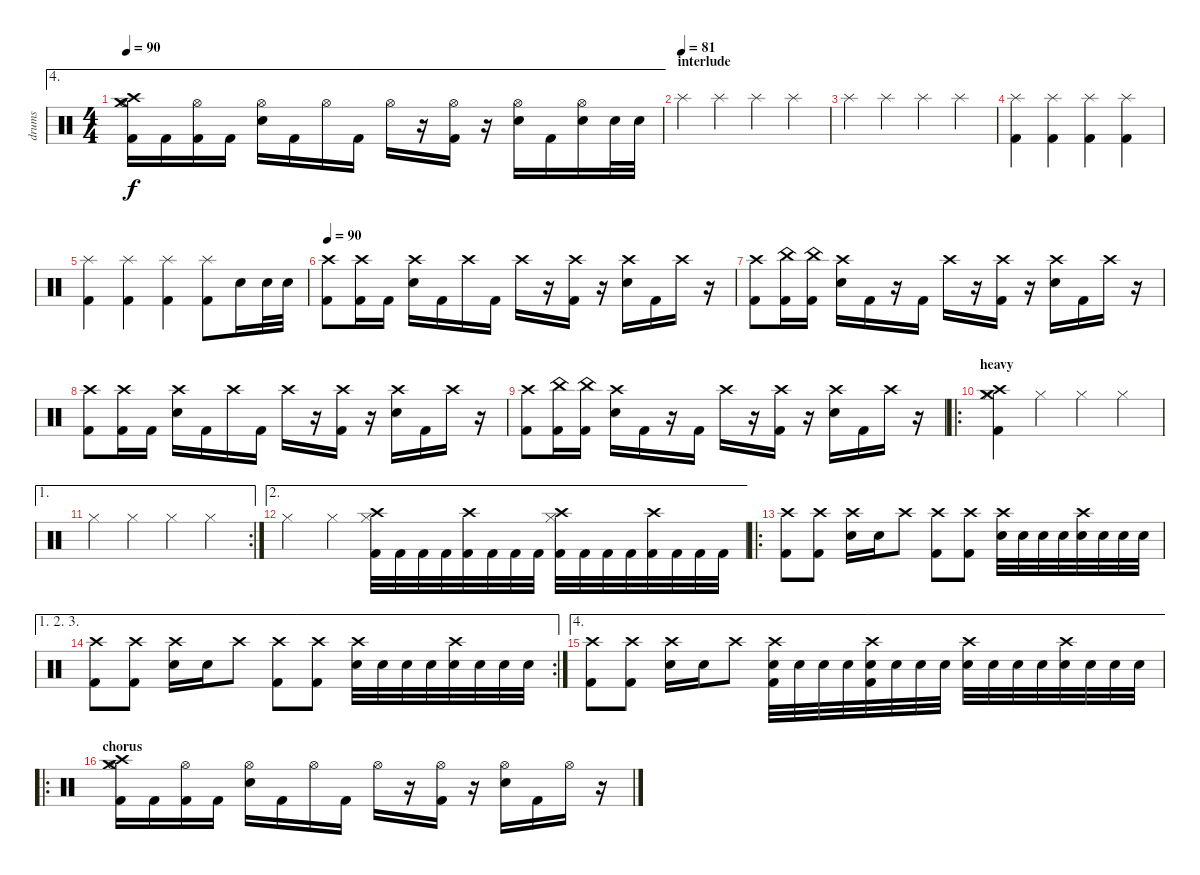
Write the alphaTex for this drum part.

\track ("drums" "drums") {instrument percussion}
\staff {score}
\articulation defaults
\ae 4
\ts (4 4)
\tempo 90
\clef neutral
\ks c
("Crash high (hit)" "Crash medium (hit)" "Hi-Hat (open)" "Kick (hit) 2").16{dy f} "Kick (hit) 2".16 ("Hi-Hat (open)" "Kick (hit) 2").16 "Kick (hit) 2".16 ("Hi-Hat (open)" "Electric Snare (hit)").16 "Kick (hit) 2".16 "Hi-Hat (open)".16 "Kick (hit) 2".16 "Hi-Hat (open)".16 r.16 ("Hi-Hat (open)" "Kick (hit) 2").16 r.16 ("Hi-Hat (open)" "Electric Snare (hit)").16 "Kick (hit) 2".16 ("Hi-Hat (open)" "Electric Snare (hit)").16 "Electric Snare (hit)".32 "Electric Snare (hit)".32 |
\section ("" "interlude")
\tempo (81)
"Splash (hit)".4 "Splash (hit)".4 "Splash (hit)".4 "Splash (hit)".4 |
"Splash (hit)".4 "Splash (hit)".4 "Splash (hit)".4 "Splash (hit)".4 |
("Splash (hit)" "Kick (hit) 2").4 ("Splash (hit)" "Kick (hit) 2").4 ("Splash (hit)" "Kick (hit) 2").4 ("Splash (hit)" "Kick (hit) 2").4 |
("Splash (hit)" "Kick (hit) 2").4 ("Splash (hit)" "Kick (hit) 2").4 ("Splash (hit)" "Kick (hit) 2").4 ("Splash (hit)" "Kick (hit) 2").8 "Electric Snare (hit)".16 "Electric Snare (hit)".32 "Electric Snare (hit)".32 |
\tempo 90
("Crash high (hit)" "Kick (hit) 2").8 ("Crash high (hit)" "Kick (hit) 2").16 "Kick (hit) 2".16 ("Crash high (hit)" "Electric Snare (hit)").16 "Kick (hit) 2".16 "Crash high (hit)".16 "Kick (hit) 2".16 "Crash high (hit)".16 r.16 ("Crash high (hit)" "Kick (hit) 2").16 r.16 ("Crash high (hit)" "Electric Snare (hit)").16 "Kick (hit) 2".16 "Crash high (hit)".16 r.16 |
("Crash high (hit)" "Kick (hit) 2").8 ("China (hit)" "Kick (hit) 2").16 ("China (hit)" "Kick (hit) 2").16 ("Crash high (hit)" "Electric Snare (hit)").16 "Kick (hit) 2".16 r.16 "Kick (hit) 2".16 "Crash high (hit)".16 r.16 ("Crash high (hit)" "Kick (hit) 2").16 r.16 ("Crash high (hit)" "Electric Snare (hit)").16 "Kick (hit) 2".16 "Crash high (hit)".16 r.16 |
("Crash high (hit)" "Kick (hit) 2").8 ("Crash high (hit)" "Kick (hit) 2").16 "Kick (hit) 2".16 ("Crash high (hit)" "Electric Snare (hit)").16 "Kick (hit) 2".16 "Crash high (hit)".16 "Kick (hit) 2".16 "Crash high (hit)".16 r.16 ("Crash high (hit)" "Kick (hit) 2").16 r.16 ("Crash high (hit)" "Electric Snare (hit)").16 "Kick (hit) 2".16 "Crash high (hit)".16 r.16 |
("Crash high (hit)" "Kick (hit) 2").8 ("China (hit)" "Kick (hit) 2").16 ("China (hit)" "Kick (hit) 2").16 ("Crash high (hit)" "Electric Snare (hit)").16 "Kick (hit) 2".16 r.16 "Kick (hit) 2".16 "Crash high (hit)".16 r.16 ("Crash high (hit)" "Kick (hit) 2").16 r.16 ("Crash high (hit)" "Electric Snare (hit)").16 "Kick (hit) 2".16 "Crash high (hit)".16 r.16 |
\ro
\section ("" "heavy")
("Crash high (hit)" "Crash medium (hit)" "Hi-Hat (closed)" "Kick (hit) 2").4 "Hi-Hat (closed)".4 "Hi-Hat (closed)".4 "Hi-Hat (closed)".4 |
\ae 1
\rc 2 "Hi-Hat (closed)".4 "Hi-Hat (closed)".4 "Hi-Hat (closed)".4 "Hi-Hat (closed)".4
|
\ae 2 "Hi-Hat (closed)".4 "Hi-Hat (closed)".4
("Crash high (hit)" "Hi-Hat (closed)" "Kick (hit) 2").32 "Kick (hit) 2".32 "Kick (hit) 2".32 "Kick (hit) 2".32 ("Crash high (hit)" "Kick (hit) 2").32 "Kick (hit) 2".32 "Kick (hit) 2".32 "Kick (hit) 2".32 ("Crash high (hit)" "Hi-Hat (closed)" "Kick (hit) 2").32 "Kick (hit) 2".32 "Kick (hit) 2".32 "Kick (hit) 2".32 ("Crash high (hit)" "Kick (hit) 2").32 "Kick (hit) 2".32 "Kick (hit) 2".32 "Kick (hit) 2".32 |
\ro
("Crash high (hit)" "Kick (hit) 2").8 ("Crash high (hit)" "Kick (hit) 2").8 ("Crash high (hit)" "Electric Snare (hit)").16 "Electric Snare (hit)".16 "Crash high (hit)".8 ("Crash high (hit)" "Kick (hit) 2").8 ("Crash high (hit)" "Kick (hit) 2").8 ("Crash high (hit)" "Electric Snare (hit)").32 "Electric Snare (hit)".32 "Electric Snare (hit)".32 "Electric Snare (hit)".32 ("Crash high (hit)" "Electric Snare (hit)").32 "Electric Snare (hit)".32 "Electric Snare (hit)".32 "Electric Snare (hit)".32 |
\ae (1 2 3)
\rc 2
("Crash high (hit)" "Kick (hit) 2").8 ("Crash high (hit)" "Kick (hit) 2").8 ("Crash high (hit)" "Electric Snare (hit)").16 "Electric Snare (hit)".16 "Crash high (hit)".8 ("Crash high (hit)" "Kick (hit) 2").8 ("Crash high (hit)" "Kick (hit) 2").8 ("Crash high (hit)" "Electric Snare (hit)").32 "Electric Snare (hit)".32 "Electric Snare (hit)".32 "Electric Snare (hit)".32 ("Crash high (hit)" "Electric Snare (hit)").32 "Electric Snare (hit)".32 "Electric Snare (hit)".32 "Electric Snare (hit)".32 |
\ae 4
("Crash high (hit)" "Kick (hit) 2").8 ("Crash high (hit)" "Kick (hit) 2").8 ("Crash high (hit)" "Electric Snare (hit)").16 "Electric Snare (hit)".16 "Crash high (hit)".8 ("Crash high (hit)" "Electric Snare (hit)" "Kick (hit) 2").32 "Electric Snare (hit)".32 "Electric Snare (hit)".32 "Electric Snare (hit)".32 ("Crash high (hit)" "Electric Snare (hit)" "Kick (hit) 2").32 "Electric Snare (hit)".32 "Electric Snare (hit)".32 "Electric Snare (hit)".32 ("Crash high (hit)" "Electric Snare (hit)").32 "Electric Snare (hit)".32 "Electric Snare (hit)".32 "Electric Snare (hit)".32 ("Crash high (hit)" "Electric Snare (hit)").32 "Electric Snare (hit)".32 "Electric Snare (hit)".32 "Electric Snare (hit)".32 |
\ro
\section ("" "chorus")
("Crash high (hit)" "Crash medium (hit)" "Hi-Hat (open)" "Kick (hit) 2").16 "Kick (hit) 2".16 ("Hi-Hat (open)" "Kick (hit) 2").16 "Kick (hit) 2".16 ("Hi-Hat (open)" "Electric Snare (hit)").16 "Kick (hit) 2".16 "Hi-Hat (open)".16 "Kick (hit) 2".16 "Hi-Hat (open)".16 r.16 ("Hi-Hat (open)" "Kick (hit) 2").16 r.16 ("Hi-Hat (open)" "Electric Snare (hit)").16 "Kick (hit) 2".16 "Hi-Hat (open)".16 r.16
